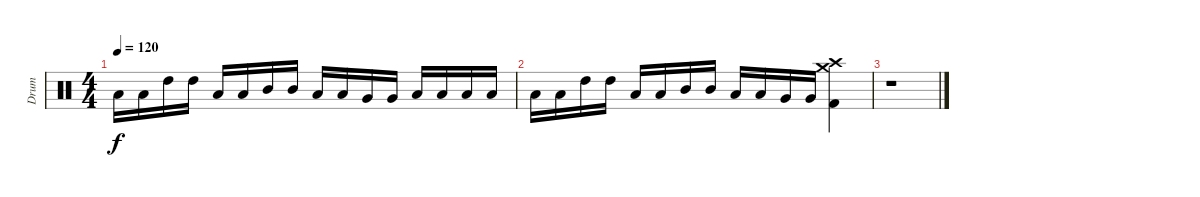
\track ("Drum" "Drum") {instrument percussion}
\staff {score}
\articulation defaults
\ts (4 4)
\tempo 120
\clef neutral
\ks c "Low Tom (hit)".16{dy f} "Low Tom (hit)".16 "High Tom (hit)".16 "High Tom (hit)".16 "Low Tom (hit)".16 "Low Tom (hit)".16 "Mid Tom (hit)".16 "Mid Tom (hit)".16 "Low Tom (hit)".16 "Low Tom (hit)".16 "Very Low Tom (hit)".16 "Very Low Tom (hit)".16 "Low Floor Tom (hit)".16 "Low Floor Tom (hit)".16 "Low Tom (hit)".16 "Low Tom (hit)".16
|
"Low Tom (hit)".16 "Low Tom (hit)".16 "High Tom (hit)".16 "High Tom (hit)".16 "Low Tom (hit)".16 "Low Tom (hit)".16 "Mid Tom (hit)".16 "Mid Tom (hit)".16 "Low Tom (hit)".16 "Low Tom (hit)".16 "Very Low Tom (hit)".16 "Very Low Tom (hit)".16 ("Crash medium (hit)" "Crash high (hit)" "Kick (hit) 2").4 |
r.1
